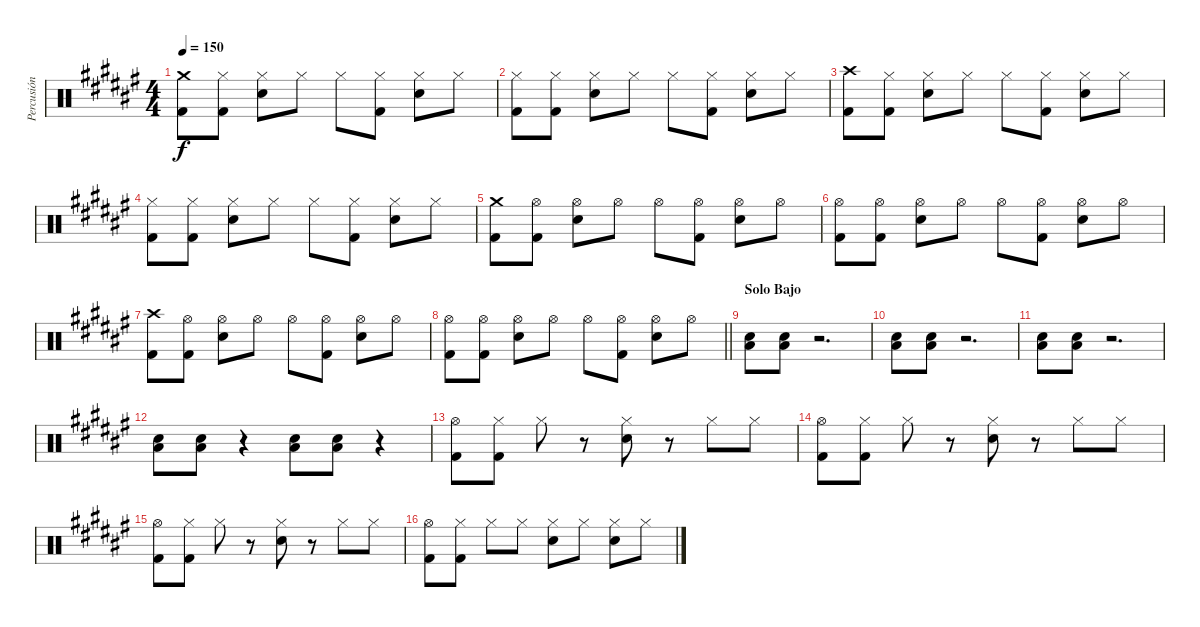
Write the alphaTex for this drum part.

\track ("Percusión" "Percusión") {instrument percussion}
\staff {score}
\articulation defaults
\ts (4 4)
\tempo 150
\clef neutral
\ks d#minor
("Crash medium (hit)" "Kick (hit) 2").8{dy f} ("Hi-Hat (closed)" "Kick (hit) 2").8 ("Hi-Hat (closed)" "Electric Snare (hit)").8 "Hi-Hat (closed)".8 "Hi-Hat (closed)".8 ("Hi-Hat (closed)" "Kick (hit) 2").8 ("Hi-Hat (closed)" "Electric Snare (hit)").8 "Hi-Hat (closed)".8 |
("Hi-Hat (closed)" "Kick (hit) 2").8 ("Hi-Hat (closed)" "Kick (hit) 2").8 ("Hi-Hat (closed)" "Electric Snare (hit)").8 "Hi-Hat (closed)".8 "Hi-Hat (closed)".8 ("Hi-Hat (closed)" "Kick (hit) 2").8 ("Hi-Hat (closed)" "Electric Snare (hit)").8 "Hi-Hat (closed)".8 |
("Crash high (hit)" "Kick (hit) 2").8 ("Hi-Hat (closed)" "Kick (hit) 2").8 ("Hi-Hat (closed)" "Electric Snare (hit)").8 "Hi-Hat (closed)".8 "Hi-Hat (closed)".8 ("Hi-Hat (closed)" "Kick (hit) 2").8 ("Hi-Hat (closed)" "Electric Snare (hit)").8 "Hi-Hat (closed)".8 |
("Hi-Hat (closed)" "Kick (hit) 2").8 ("Hi-Hat (closed)" "Kick (hit) 2").8 ("Hi-Hat (closed)" "Electric Snare (hit)").8 "Hi-Hat (closed)".8 "Hi-Hat (closed)".8 ("Hi-Hat (closed)" "Kick (hit) 2").8 ("Hi-Hat (closed)" "Electric Snare (hit)").8 "Hi-Hat (closed)".8 |
("Crash medium (hit)" "Kick (hit) 2").8 ("Hi-Hat (open)" "Kick (hit) 2").8 ("Hi-Hat (open)" "Electric Snare (hit)").8 "Hi-Hat (open)".8 "Hi-Hat (open)".8 ("Hi-Hat (open)" "Kick (hit) 2").8 ("Hi-Hat (open)" "Electric Snare (hit)").8 "Hi-Hat (open)".8 |
("Hi-Hat (open)" "Kick (hit) 2").8 ("Hi-Hat (open)" "Kick (hit) 2").8 ("Hi-Hat (open)" "Electric Snare (hit)").8 "Hi-Hat (open)".8 "Hi-Hat (open)".8 ("Hi-Hat (open)" "Kick (hit) 2").8 ("Hi-Hat (open)" "Electric Snare (hit)").8 "Hi-Hat (open)".8 |
("Crash high (hit)" "Kick (hit) 2").8 ("Hi-Hat (open)" "Kick (hit) 2").8 ("Hi-Hat (open)" "Electric Snare (hit)").8 "Hi-Hat (open)".8 "Hi-Hat (open)".8 ("Hi-Hat (open)" "Kick (hit) 2").8 ("Hi-Hat (open)" "Electric Snare (hit)").8 "Hi-Hat (open)".8 |
\barLineRight lightlight
("Hi-Hat (open)" "Kick (hit) 2").8 ("Hi-Hat (open)" "Kick (hit) 2").8 ("Hi-Hat (open)" "Electric Snare (hit)").8 "Hi-Hat (open)".8 "Hi-Hat (open)".8 ("Hi-Hat (open)" "Kick (hit) 2").8 ("Hi-Hat (open)" "Electric Snare (hit)").8 "Hi-Hat (open)".8 |
\section ("" "Solo Bajo")
("Electric Snare (hit)" "Low Floor Tom (hit)").8 ("Electric Snare (hit)" "Low Floor Tom (hit)").8 r.2{d} |
("Electric Snare (hit)" "Low Floor Tom (hit)").8 ("Electric Snare (hit)" "Low Floor Tom (hit)").8 r.2{d} |
("Electric Snare (hit)" "Low Floor Tom (hit)").8 ("Electric Snare (hit)" "Low Floor Tom (hit)").8 r.2{d} |
("Electric Snare (hit)" "Low Floor Tom (hit)").8 ("Electric Snare (hit)" "Low Floor Tom (hit)").8 r.4 ("Electric Snare (hit)" "Low Floor Tom (hit)").8 ("Electric Snare (hit)" "Low Floor Tom (hit)").8 r.4 |
("Hi-Hat (open)" "Kick (hit) 2").8 ("Hi-Hat (closed)" "Kick (hit) 2").8 "Hi-Hat (closed)".8 r.8 ("Hi-Hat (closed)" "Electric Snare (hit)").8 r.8 "Hi-Hat (closed)".8 "Hi-Hat (closed)".8 |
("Hi-Hat (open)" "Kick (hit) 2").8 ("Hi-Hat (closed)" "Kick (hit) 2").8 "Hi-Hat (closed)".8 r.8 ("Hi-Hat (closed)" "Electric Snare (hit)").8 r.8 "Hi-Hat (closed)".8 "Hi-Hat (closed)".8 |
("Hi-Hat (open)" "Kick (hit) 2").8 ("Hi-Hat (closed)" "Kick (hit) 2").8 "Hi-Hat (closed)".8 r.8 ("Hi-Hat (closed)" "Electric Snare (hit)").8 r.8 "Hi-Hat (closed)".8 "Hi-Hat (closed)".8 |
("Hi-Hat (open)" "Kick (hit) 2").8 ("Hi-Hat (closed)" "Kick (hit) 2").8 "Hi-Hat (closed)".8 "Hi-Hat (closed)".8 ("Hi-Hat (closed)" "Electric Snare (hit)").8 "Hi-Hat (closed)".8 ("Hi-Hat (closed)" "Electric Snare (hit)").8 "Hi-Hat (closed)".8
